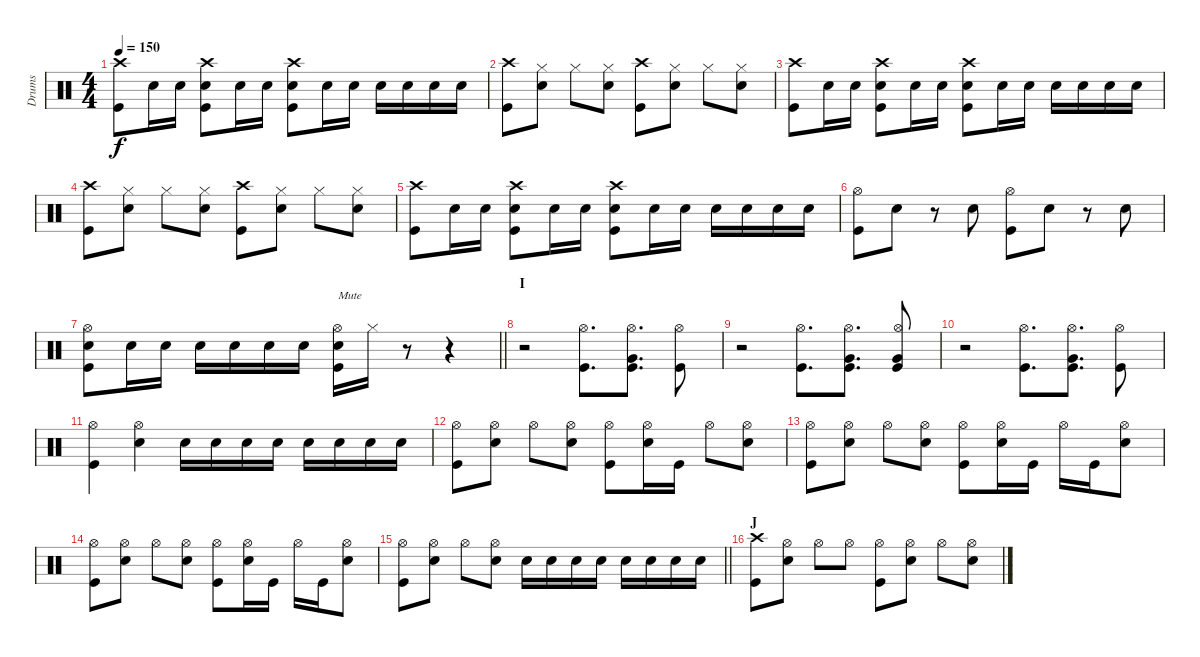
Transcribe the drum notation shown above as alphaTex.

\track ("Drums" "Drums") {instrument percussion}
\staff {score}
\articulation defaults
\ts (4 4)
\tempo 150
\clef neutral
\ks c
("Crash high (hit)" "Kick (hit)").8{dy f} "Snare (hit) 2".16 "Snare (hit) 2".16 ("Crash high (hit)" "Snare (hit) 2" "Kick (hit)").8 "Snare (hit) 2".16 "Snare (hit) 2".16 ("Crash high (hit)" "Snare (hit) 2" "Kick (hit)").8 "Snare (hit) 2".16 "Snare (hit) 2".16 "Snare (hit) 2".16 "Snare (hit) 2".16 "Snare (hit) 2".16 "Snare (hit) 2".16 |
("Crash high (hit)" "Kick (hit)").8 ("Hi-Hat (closed)" "Snare (hit) 2").8 "Hi-Hat (closed)".8 ("Hi-Hat (closed)" "Snare (hit) 2").8 ("Crash high (hit)" "Kick (hit)").8 ("Hi-Hat (closed)" "Snare (hit) 2").8 "Hi-Hat (closed)".8 ("Hi-Hat (closed)" "Snare (hit) 2").8 |
("Crash high (hit)" "Kick (hit)").8 "Snare (hit) 2".16 "Snare (hit) 2".16 ("Crash high (hit)" "Snare (hit) 2" "Kick (hit)").8 "Snare (hit) 2".16 "Snare (hit) 2".16 ("Crash high (hit)" "Snare (hit) 2" "Kick (hit)").8 "Snare (hit) 2".16 "Snare (hit) 2".16 "Snare (hit) 2".16 "Snare (hit) 2".16 "Snare (hit) 2".16 "Snare (hit) 2".16 |
("Crash high (hit)" "Kick (hit)").8 ("Hi-Hat (closed)" "Snare (hit) 2").8 "Hi-Hat (closed)".8 ("Hi-Hat (closed)" "Snare (hit) 2").8 ("Crash high (hit)" "Kick (hit)").8 ("Hi-Hat (closed)" "Snare (hit) 2").8 "Hi-Hat (closed)".8 ("Hi-Hat (closed)" "Snare (hit) 2").8 |
("Crash high (hit)" "Kick (hit)").8 "Snare (hit) 2".16 "Snare (hit) 2".16 ("Crash high (hit)" "Snare (hit) 2" "Kick (hit)").8 "Snare (hit) 2".16 "Snare (hit) 2".16 ("Crash high (hit)" "Snare (hit) 2" "Kick (hit)").8 "Snare (hit) 2".16 "Snare (hit) 2".16 "Snare (hit) 2".16 "Snare (hit) 2".16 "Snare (hit) 2".16 "Snare (hit) 2".16 |
("Hi-Hat (open)" "Kick (hit)").8 "Snare (hit) 2".8 r.8 "Snare (hit) 2".8 ("Hi-Hat (open)" "Kick (hit)").8 "Snare (hit) 2".8 r.8 "Snare (hit) 2".8 |
\barLineRight lightlight
("Hi-Hat (open)" "Snare (hit) 2" "Kick (hit)").8 "Snare (hit) 2".16 "Snare (hit) 2".16 "Snare (hit) 2".16 "Snare (hit) 2".16 "Snare (hit) 2".16 "Snare (hit) 2".16 ("Hi-Hat (open)" "Snare (hit) 2" "Kick (hit)").16{txt "Mute"} "Hi-Hat (closed)".16 r.8 r.4 |
\section ("" "I")
r.2 ("Hi-Hat (open)" "Kick (hit)").8{d} ("Hi-Hat (open)" "Very Low Tom (hit)" "Kick (hit)").8{d} ("Hi-Hat (open)" "Kick (hit)").8 |
r.2 ("Hi-Hat (open)" "Kick (hit)").8{d} ("Hi-Hat (open)" "Very Low Tom (hit)" "Kick (hit)").8{d} ("Hi-Hat (open)" "Very Low Tom (hit)" "Kick (hit)").8 |
r.2 ("Hi-Hat (open)" "Kick (hit)").8{d} ("Hi-Hat (open)" "Very Low Tom (hit)" "Kick (hit)").8{d} ("Hi-Hat (open)" "Kick (hit)").8 |
("Hi-Hat (open)" "Kick (hit)").4 ("Hi-Hat (open)" "Snare (hit) 2").4 "Snare (hit) 2".16 "Snare (hit) 2".16 "Snare (hit) 2".16 "Snare (hit) 2".16 "Snare (hit) 2".16 "Snare (hit) 2".16 "Snare (hit) 2".16 "Snare (hit) 2".16 |
("Hi-Hat (open)" "Kick (hit)").8 ("Hi-Hat (open)" "Snare (hit) 2").8 "Hi-Hat (open)".8 ("Hi-Hat (open)" "Snare (hit) 2").8 ("Hi-Hat (open)" "Kick (hit)").8 ("Hi-Hat (open)" "Snare (hit) 2").16 "Kick (hit)".16 "Hi-Hat (open)".8 ("Hi-Hat (open)" "Snare (hit) 2").8 |
("Hi-Hat (open)" "Kick (hit)").8 ("Hi-Hat (open)" "Snare (hit) 2").8 "Hi-Hat (open)".8 ("Hi-Hat (open)" "Snare (hit) 2").8 ("Hi-Hat (open)" "Kick (hit)").8 ("Hi-Hat (open)" "Snare (hit) 2").16 "Kick (hit)".16 "Hi-Hat (open)".16 "Kick (hit)".16 ("Hi-Hat (open)" "Snare (hit) 2").8 |
("Hi-Hat (open)" "Kick (hit)").8 ("Hi-Hat (open)" "Snare (hit) 2").8 "Hi-Hat (open)".8 ("Hi-Hat (open)" "Snare (hit) 2").8 ("Hi-Hat (open)" "Kick (hit)").8 ("Hi-Hat (open)" "Snare (hit) 2").16 "Kick (hit)".16 "Hi-Hat (open)".16 "Kick (hit)".16 ("Hi-Hat (open)" "Snare (hit) 2").8 |
\barLineRight lightlight
("Hi-Hat (open)" "Kick (hit)").8 ("Hi-Hat (open)" "Snare (hit) 2").8 "Hi-Hat (open)".8 ("Hi-Hat (open)" "Snare (hit) 2").8 "Snare (hit) 2".16 "Snare (hit) 2".16 "Snare (hit) 2".16 "Snare (hit) 2".16 "Snare (hit) 2".16 "Snare (hit) 2".16 "Snare (hit) 2".16 "Snare (hit) 2".16 |
\section ("" "J")
("Crash high (hit)" "Kick (hit)").8 ("Hi-Hat (open)" "Snare (hit) 2").8 "Hi-Hat (open)".8 "Hi-Hat (open)".8 ("Hi-Hat (open)" "Kick (hit)").8 ("Hi-Hat (open)" "Snare (hit) 2").8 "Hi-Hat (open)".8 ("Hi-Hat (open)" "Snare (hit) 2").8
